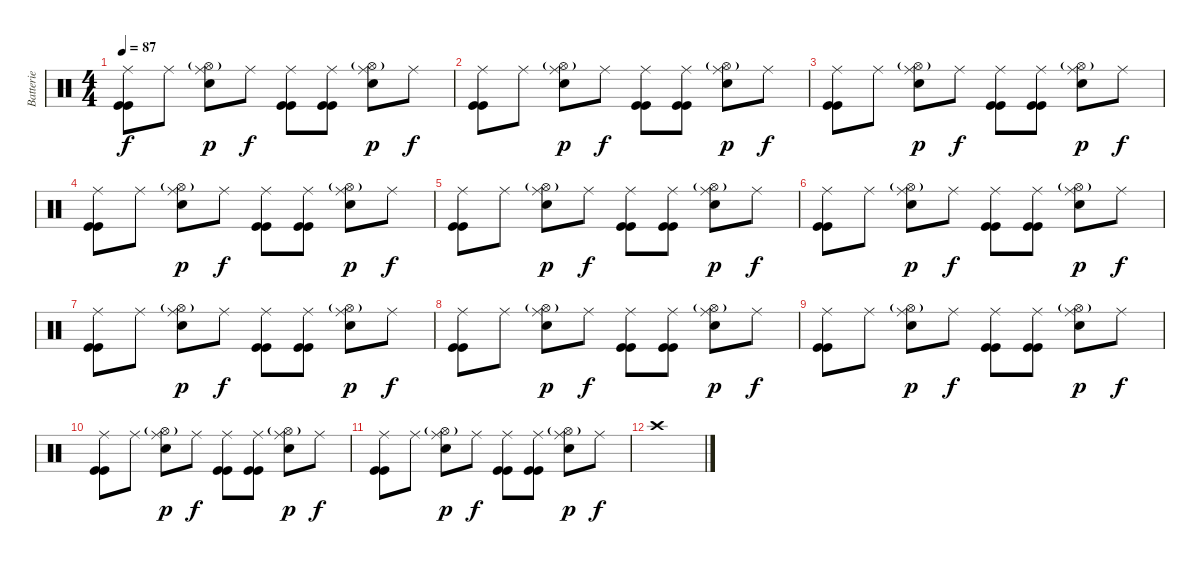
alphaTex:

\track ("Batterie" "Batterie") {instrument percussion}
\staff {score}
\articulation defaults
\ts (4 4)
\tempo 87
\clef neutral
\ks c
("Ride (middle)" "Kick (hit)" "Kick (hit)").8{dy f} "Ride (middle)".8 ("Hi-Hat (open)"{g} "Ride (middle)" "Electric Snare (hit)").8{dy p} "Ride (middle)".8{dy f} ("Ride (middle)" "Kick (hit)" "Kick (hit)").8 ("Ride (middle)" "Kick (hit)" "Kick (hit)").8 ("Hi-Hat (open)"{g} "Ride (middle)" "Electric Snare (hit)").8{dy p} "Ride (middle)".8{dy f} |
("Ride (middle)" "Kick (hit)" "Kick (hit)").8 "Ride (middle)".8 ("Hi-Hat (open)"{g} "Ride (middle)" "Electric Snare (hit)").8{dy p} "Ride (middle)".8{dy f} ("Ride (middle)" "Kick (hit)" "Kick (hit)").8 ("Ride (middle)" "Kick (hit)" "Kick (hit)").8 ("Hi-Hat (open)"{g} "Ride (middle)" "Electric Snare (hit)").8{dy p} "Ride (middle)".8{dy f} |
("Ride (middle)" "Kick (hit)" "Kick (hit)").8 "Ride (middle)".8 ("Hi-Hat (open)"{g} "Ride (middle)" "Electric Snare (hit)").8{dy p} "Ride (middle)".8{dy f} ("Ride (middle)" "Kick (hit)" "Kick (hit)").8 ("Ride (middle)" "Kick (hit)" "Kick (hit)").8 ("Hi-Hat (open)"{g} "Ride (middle)" "Electric Snare (hit)").8{dy p} "Ride (middle)".8{dy f} |
("Ride (middle)" "Kick (hit)" "Kick (hit)").8 "Ride (middle)".8 ("Hi-Hat (open)"{g} "Ride (middle)" "Electric Snare (hit)").8{dy p} "Ride (middle)".8{dy f} ("Ride (middle)" "Kick (hit)" "Kick (hit)").8 ("Ride (middle)" "Kick (hit)" "Kick (hit)").8 ("Hi-Hat (open)"{g} "Ride (middle)" "Electric Snare (hit)").8{dy p} "Ride (middle)".8{dy f} |
("Ride (middle)" "Kick (hit)" "Kick (hit)").8 "Ride (middle)".8 ("Hi-Hat (open)"{g} "Ride (middle)" "Electric Snare (hit)").8{dy p} "Ride (middle)".8{dy f} ("Ride (middle)" "Kick (hit)" "Kick (hit)").8 ("Ride (middle)" "Kick (hit)" "Kick (hit)").8 ("Hi-Hat (open)"{g} "Ride (middle)" "Electric Snare (hit)").8{dy p} "Ride (middle)".8{dy f} |
("Ride (middle)" "Kick (hit)" "Kick (hit)").8 "Ride (middle)".8 ("Hi-Hat (open)"{g} "Ride (middle)" "Electric Snare (hit)").8{dy p} "Ride (middle)".8{dy f} ("Ride (middle)" "Kick (hit)" "Kick (hit)").8 ("Ride (middle)" "Kick (hit)" "Kick (hit)").8 ("Hi-Hat (open)"{g} "Ride (middle)" "Electric Snare (hit)").8{dy p} "Ride (middle)".8{dy f} |
("Ride (middle)" "Kick (hit)" "Kick (hit)").8 "Ride (middle)".8 ("Hi-Hat (open)"{g} "Ride (middle)" "Electric Snare (hit)").8{dy p} "Ride (middle)".8{dy f} ("Ride (middle)" "Kick (hit)" "Kick (hit)").8 ("Ride (middle)" "Kick (hit)" "Kick (hit)").8 ("Hi-Hat (open)"{g} "Ride (middle)" "Electric Snare (hit)").8{dy p} "Ride (middle)".8{dy f} |
("Ride (middle)" "Kick (hit)" "Kick (hit)").8 "Ride (middle)".8 ("Hi-Hat (open)"{g} "Ride (middle)" "Electric Snare (hit)").8{dy p} "Ride (middle)".8{dy f} ("Ride (middle)" "Kick (hit)" "Kick (hit)").8 ("Ride (middle)" "Kick (hit)" "Kick (hit)").8 ("Hi-Hat (open)"{g} "Ride (middle)" "Electric Snare (hit)").8{dy p} "Ride (middle)".8{dy f} |
("Ride (middle)" "Kick (hit)" "Kick (hit)").8 "Ride (middle)".8 ("Hi-Hat (open)"{g} "Ride (middle)" "Electric Snare (hit)").8{dy p} "Ride (middle)".8{dy f} ("Ride (middle)" "Kick (hit)" "Kick (hit)").8 ("Ride (middle)" "Kick (hit)" "Kick (hit)").8 ("Hi-Hat (open)"{g} "Ride (middle)" "Electric Snare (hit)").8{dy p} "Ride (middle)".8{dy f} |
("Ride (middle)" "Kick (hit)" "Kick (hit)").8 "Ride (middle)".8 ("Hi-Hat (open)"{g} "Ride (middle)" "Electric Snare (hit)").8{dy p} "Ride (middle)".8{dy f} ("Ride (middle)" "Kick (hit)" "Kick (hit)").8 ("Ride (middle)" "Kick (hit)" "Kick (hit)").8 ("Hi-Hat (open)"{g} "Ride (middle)" "Electric Snare (hit)").8{dy p} "Ride (middle)".8{dy f} |
("Ride (middle)" "Kick (hit)" "Kick (hit)").8 "Ride (middle)".8 ("Hi-Hat (open)"{g} "Ride (middle)" "Electric Snare (hit)").8{dy p} "Ride (middle)".8{dy f} ("Ride (middle)" "Kick (hit)" "Kick (hit)").8 ("Ride (middle)" "Kick (hit)" "Kick (hit)").8 ("Hi-Hat (open)"{g} "Ride (middle)" "Electric Snare (hit)").8{dy p} "Ride (middle)".8{dy f} |
"Crash high (hit)".1
